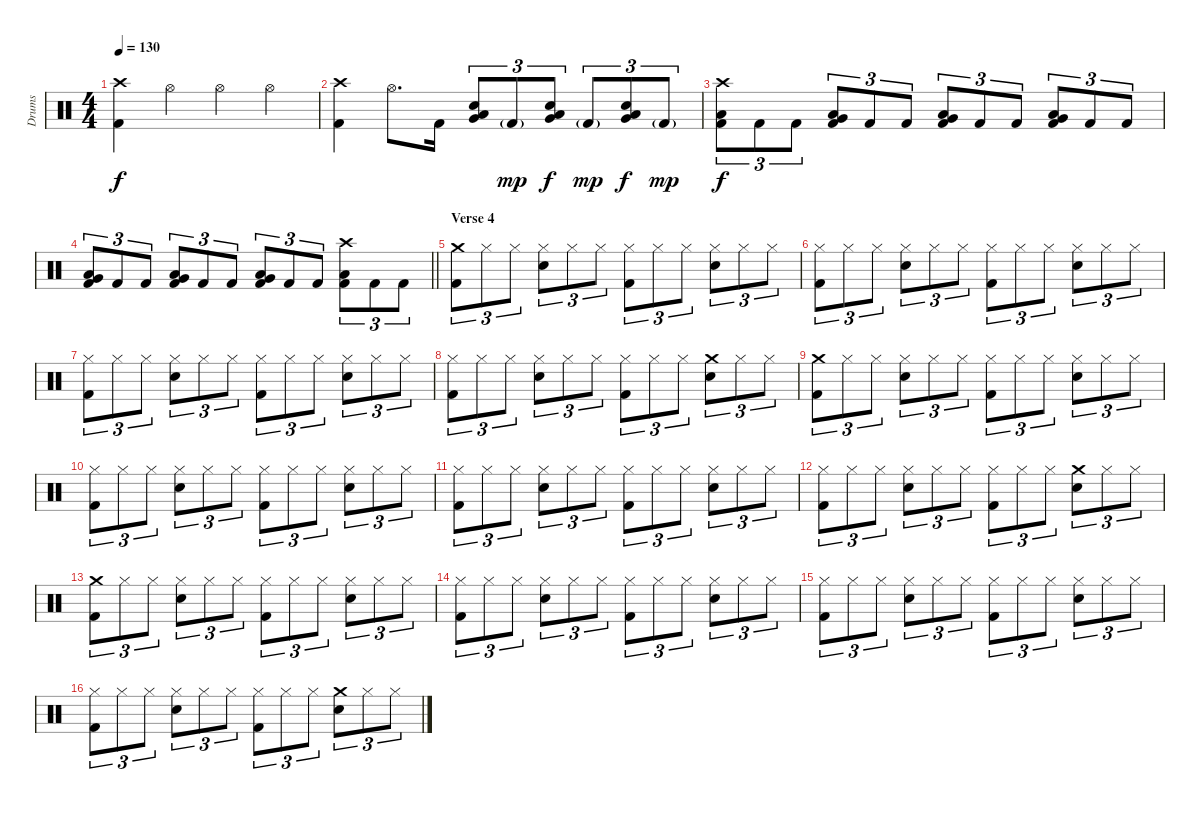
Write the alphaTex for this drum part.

\track ("Drums" "Drums") {instrument percussion}
\staff {score}
\articulation defaults
\ts (4 4)
\tempo 130
\clef neutral
\ks c
("Crash high (hit)" "Kick (hit) 2").4{dy f} "Hi-Hat (open)".4 "Hi-Hat (open)".4 "Hi-Hat (open)".4 |
("Crash high (hit)" "Kick (hit) 2").4 "Hi-Hat (open)".8{d} "Kick (hit) 2".16 ("Low Tom (hit)" "Very Low Tom (hit)" "Electric Snare (hit)").8{tu (3 2)} "Kick (hit) 2"{g}.8{tu (3 2) dy mp} ("Low Tom (hit)" "Very Low Tom (hit)" "Electric Snare (hit)").8{tu (3 2) dy f} "Kick (hit) 2"{g}.8{tu (3 2) dy mp} ("Low Tom (hit)" "Very Low Tom (hit)" "Electric Snare (hit)").8{tu (3 2) dy f} "Kick (hit) 2"{g}.8{tu (3 2) dy mp} |
("Crash high (hit)" "Low Tom (hit)" "Kick (hit) 2").8{tu (3 2) dy f} "Kick (hit) 2".8{tu (3 2)} "Kick (hit) 2".8{tu (3 2)} ("Low Tom (hit)" "Very Low Tom (hit)" "Kick (hit) 2").8{tu (3 2)} "Kick (hit) 2".8{tu (3 2)} "Kick (hit) 2".8{tu (3 2)} ("Low Tom (hit)" "Very Low Tom (hit)" "Kick (hit) 2").8{tu (3 2)} "Kick (hit) 2".8{tu (3 2)} "Kick (hit) 2".8{tu (3 2)} ("Low Tom (hit)" "Very Low Tom (hit)" "Kick (hit) 2").8{tu (3 2)} "Kick (hit) 2".8{tu (3 2)} "Kick (hit) 2".8{tu (3 2)} |
\barLineRight lightlight
("Low Tom (hit)" "Very Low Tom (hit)" "Kick (hit) 2").8{tu (3 2)} "Kick (hit) 2".8{tu (3 2)} "Kick (hit) 2".8{tu (3 2)} ("Low Tom (hit)" "Very Low Tom (hit)" "Kick (hit) 2").8{tu (3 2)} "Kick (hit) 2".8{tu (3 2)} "Kick (hit) 2".8{tu (3 2)} ("Low Tom (hit)" "Very Low Tom (hit)" "Kick (hit) 2").8{tu (3 2)} "Kick (hit) 2".8{tu (3 2)} "Kick (hit) 2".8{tu (3 2)} ("Crash high (hit)" "Low Tom (hit)" "Kick (hit) 2").8{tu (3 2)} "Kick (hit) 2".8{tu (3 2)} "Kick (hit) 2".8{tu (3 2)} |
\section ("" "Verse 4")
("Crash medium (hit)" "Kick (hit) 2").8{tu (3 2)} "Hi-Hat (closed)".8{tu (3 2)} "Hi-Hat (closed)".8{tu (3 2)} ("Hi-Hat (closed)" "Electric Snare (hit)").8{tu (3 2)} "Hi-Hat (closed)".8{tu (3 2)} "Hi-Hat (closed)".8{tu (3 2)} ("Hi-Hat (closed)" "Kick (hit) 2").8{tu (3 2)} "Hi-Hat (closed)".8{tu (3 2)} "Hi-Hat (closed)".8{tu (3 2)} ("Hi-Hat (closed)" "Electric Snare (hit)").8{tu (3 2)} "Hi-Hat (closed)".8{tu (3 2)} "Hi-Hat (closed)".8{tu (3 2)} |
("Hi-Hat (closed)" "Kick (hit) 2").8{tu (3 2)} "Hi-Hat (closed)".8{tu (3 2)} "Hi-Hat (closed)".8{tu (3 2)} ("Hi-Hat (closed)" "Electric Snare (hit)").8{tu (3 2)} "Hi-Hat (closed)".8{tu (3 2)} "Hi-Hat (closed)".8{tu (3 2)} ("Hi-Hat (closed)" "Kick (hit) 2").8{tu (3 2)} "Hi-Hat (closed)".8{tu (3 2)} "Hi-Hat (closed)".8{tu (3 2)} ("Hi-Hat (closed)" "Electric Snare (hit)").8{tu (3 2)} "Hi-Hat (closed)".8{tu (3 2)} "Hi-Hat (closed)".8{tu (3 2)} |
("Hi-Hat (closed)" "Kick (hit) 2").8{tu (3 2)} "Hi-Hat (closed)".8{tu (3 2)} "Hi-Hat (closed)".8{tu (3 2)} ("Hi-Hat (closed)" "Electric Snare (hit)").8{tu (3 2)} "Hi-Hat (closed)".8{tu (3 2)} "Hi-Hat (closed)".8{tu (3 2)} ("Hi-Hat (closed)" "Kick (hit) 2").8{tu (3 2)} "Hi-Hat (closed)".8{tu (3 2)} "Hi-Hat (closed)".8{tu (3 2)} ("Hi-Hat (closed)" "Electric Snare (hit)").8{tu (3 2)} "Hi-Hat (closed)".8{tu (3 2)} "Hi-Hat (closed)".8{tu (3 2)} |
("Hi-Hat (closed)" "Kick (hit) 2").8{tu (3 2)} "Hi-Hat (closed)".8{tu (3 2)} "Hi-Hat (closed)".8{tu (3 2)} ("Hi-Hat (closed)" "Electric Snare (hit)").8{tu (3 2)} "Hi-Hat (closed)".8{tu (3 2)} "Hi-Hat (closed)".8{tu (3 2)} ("Hi-Hat (closed)" "Kick (hit) 2").8{tu (3 2)} "Hi-Hat (closed)".8{tu (3 2)} "Hi-Hat (closed)".8{tu (3 2)} ("Crash medium (hit)" "Electric Snare (hit)").8{tu (3 2)} "Hi-Hat (closed)".8{tu (3 2)} "Hi-Hat (closed)".8{tu (3 2)} |
("Crash medium (hit)" "Kick (hit) 2").8{tu (3 2)} "Hi-Hat (closed)".8{tu (3 2)} "Hi-Hat (closed)".8{tu (3 2)} ("Hi-Hat (closed)" "Electric Snare (hit)").8{tu (3 2)} "Hi-Hat (closed)".8{tu (3 2)} "Hi-Hat (closed)".8{tu (3 2)} ("Hi-Hat (closed)" "Kick (hit) 2").8{tu (3 2)} "Hi-Hat (closed)".8{tu (3 2)} "Hi-Hat (closed)".8{tu (3 2)} ("Hi-Hat (closed)" "Electric Snare (hit)").8{tu (3 2)} "Hi-Hat (closed)".8{tu (3 2)} "Hi-Hat (closed)".8{tu (3 2)} |
("Hi-Hat (closed)" "Kick (hit) 2").8{tu (3 2)} "Hi-Hat (closed)".8{tu (3 2)} "Hi-Hat (closed)".8{tu (3 2)} ("Hi-Hat (closed)" "Electric Snare (hit)").8{tu (3 2)} "Hi-Hat (closed)".8{tu (3 2)} "Hi-Hat (closed)".8{tu (3 2)} ("Hi-Hat (closed)" "Kick (hit) 2").8{tu (3 2)} "Hi-Hat (closed)".8{tu (3 2)} "Hi-Hat (closed)".8{tu (3 2)} ("Hi-Hat (closed)" "Electric Snare (hit)").8{tu (3 2)} "Hi-Hat (closed)".8{tu (3 2)} "Hi-Hat (closed)".8{tu (3 2)} |
("Hi-Hat (closed)" "Kick (hit) 2").8{tu (3 2)} "Hi-Hat (closed)".8{tu (3 2)} "Hi-Hat (closed)".8{tu (3 2)} ("Hi-Hat (closed)" "Electric Snare (hit)").8{tu (3 2)} "Hi-Hat (closed)".8{tu (3 2)} "Hi-Hat (closed)".8{tu (3 2)} ("Hi-Hat (closed)" "Kick (hit) 2").8{tu (3 2)} "Hi-Hat (closed)".8{tu (3 2)} "Hi-Hat (closed)".8{tu (3 2)} ("Hi-Hat (closed)" "Electric Snare (hit)").8{tu (3 2)} "Hi-Hat (closed)".8{tu (3 2)} "Hi-Hat (closed)".8{tu (3 2)} |
("Hi-Hat (closed)" "Kick (hit) 2").8{tu (3 2)} "Hi-Hat (closed)".8{tu (3 2)} "Hi-Hat (closed)".8{tu (3 2)} ("Hi-Hat (closed)" "Electric Snare (hit)").8{tu (3 2)} "Hi-Hat (closed)".8{tu (3 2)} "Hi-Hat (closed)".8{tu (3 2)} ("Hi-Hat (closed)" "Kick (hit) 2").8{tu (3 2)} "Hi-Hat (closed)".8{tu (3 2)} "Hi-Hat (closed)".8{tu (3 2)} ("Crash medium (hit)" "Electric Snare (hit)").8{tu (3 2)} "Hi-Hat (closed)".8{tu (3 2)} "Hi-Hat (closed)".8{tu (3 2)} |
("Crash medium (hit)" "Kick (hit) 2").8{tu (3 2)} "Hi-Hat (closed)".8{tu (3 2)} "Hi-Hat (closed)".8{tu (3 2)} ("Hi-Hat (closed)" "Electric Snare (hit)").8{tu (3 2)} "Hi-Hat (closed)".8{tu (3 2)} "Hi-Hat (closed)".8{tu (3 2)} ("Hi-Hat (closed)" "Kick (hit) 2").8{tu (3 2)} "Hi-Hat (closed)".8{tu (3 2)} "Hi-Hat (closed)".8{tu (3 2)} ("Hi-Hat (closed)" "Electric Snare (hit)").8{tu (3 2)} "Hi-Hat (closed)".8{tu (3 2)} "Hi-Hat (closed)".8{tu (3 2)} |
("Hi-Hat (closed)" "Kick (hit) 2").8{tu (3 2)} "Hi-Hat (closed)".8{tu (3 2)} "Hi-Hat (closed)".8{tu (3 2)} ("Hi-Hat (closed)" "Electric Snare (hit)").8{tu (3 2)} "Hi-Hat (closed)".8{tu (3 2)} "Hi-Hat (closed)".8{tu (3 2)} ("Hi-Hat (closed)" "Kick (hit) 2").8{tu (3 2)} "Hi-Hat (closed)".8{tu (3 2)} "Hi-Hat (closed)".8{tu (3 2)} ("Hi-Hat (closed)" "Electric Snare (hit)").8{tu (3 2)} "Hi-Hat (closed)".8{tu (3 2)} "Hi-Hat (closed)".8{tu (3 2)} |
("Hi-Hat (closed)" "Kick (hit) 2").8{tu (3 2)} "Hi-Hat (closed)".8{tu (3 2)} "Hi-Hat (closed)".8{tu (3 2)} ("Hi-Hat (closed)" "Electric Snare (hit)").8{tu (3 2)} "Hi-Hat (closed)".8{tu (3 2)} "Hi-Hat (closed)".8{tu (3 2)} ("Hi-Hat (closed)" "Kick (hit) 2").8{tu (3 2)} "Hi-Hat (closed)".8{tu (3 2)} "Hi-Hat (closed)".8{tu (3 2)} ("Hi-Hat (closed)" "Electric Snare (hit)").8{tu (3 2)} "Hi-Hat (closed)".8{tu (3 2)} "Hi-Hat (closed)".8{tu (3 2)} |
("Hi-Hat (closed)" "Kick (hit) 2").8{tu (3 2)} "Hi-Hat (closed)".8{tu (3 2)} "Hi-Hat (closed)".8{tu (3 2)} ("Hi-Hat (closed)" "Electric Snare (hit)").8{tu (3 2)} "Hi-Hat (closed)".8{tu (3 2)} "Hi-Hat (closed)".8{tu (3 2)} ("Hi-Hat (closed)" "Kick (hit) 2").8{tu (3 2)} "Hi-Hat (closed)".8{tu (3 2)} "Hi-Hat (closed)".8{tu (3 2)} ("Crash medium (hit)" "Electric Snare (hit)").8{tu (3 2)} "Hi-Hat (closed)".8{tu (3 2)} "Hi-Hat (closed)".8{tu (3 2)}
